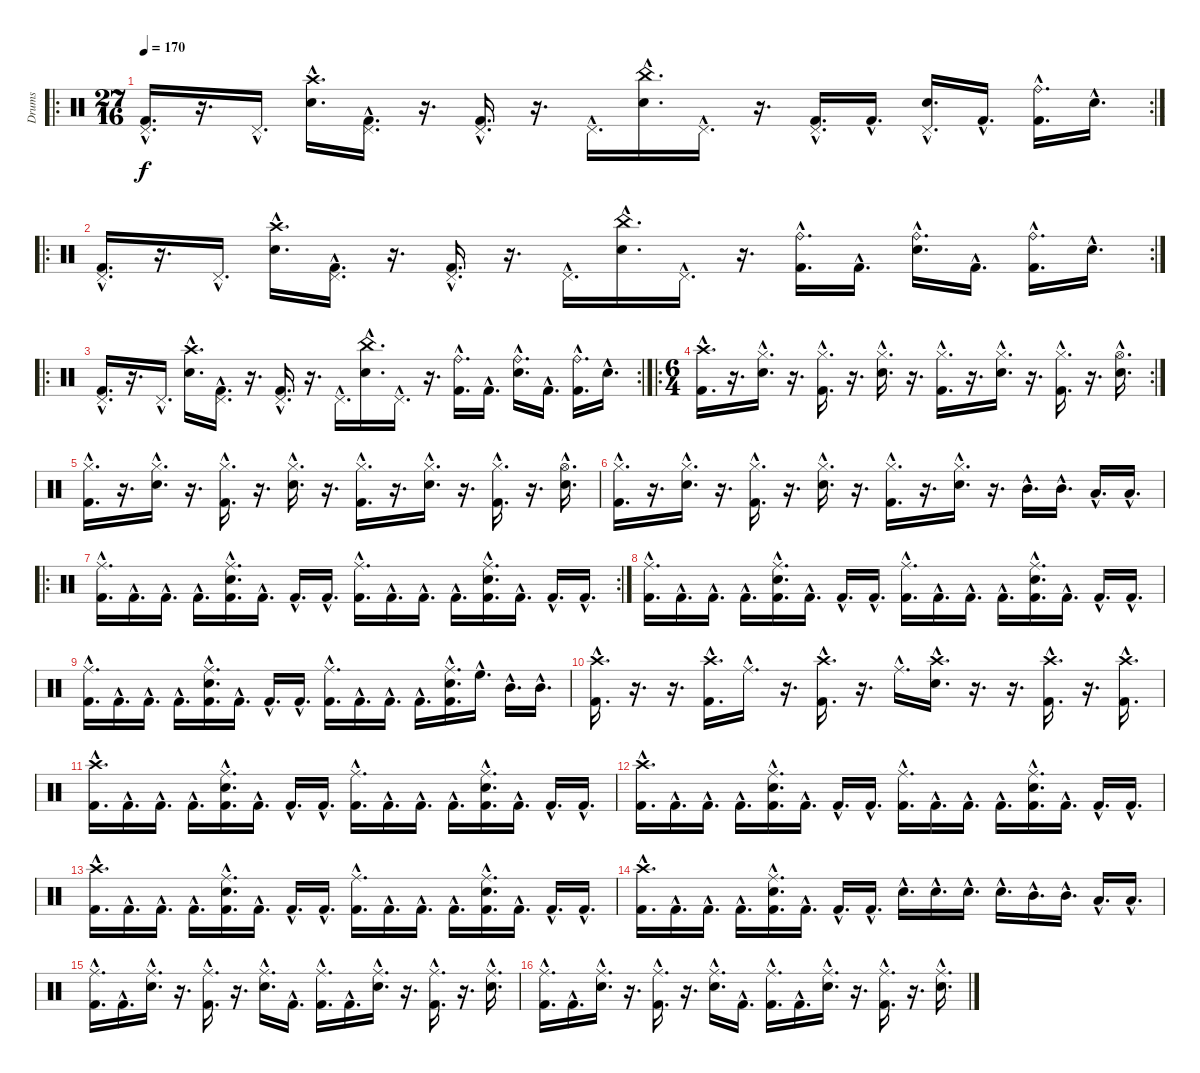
\track ("Drums" "Drums") {instrument percussion}
\staff {score}
\articulation defaults
\ro
\rc 2
\ts (27 16)
\tempo 170
\clef neutral
\ks c
("Pedal Hi-Hat (hit)"{hac} "Kick (hit) 2"{hac}).16{d dy f} r.16{d} "Pedal Hi-Hat (hit)"{hac}.16{d} ("Crash high (hit)"{hac} "Snare (hit) 2"{hac}).16{d} ("Pedal Hi-Hat (hit)"{hac} "Kick (hit) 2"{hac}).16{d} r.16{d} ("Pedal Hi-Hat (hit)"{hac} "Kick (hit) 2"{hac}).16{d} r.16{d} "Pedal Hi-Hat (hit)"{hac}.16{d} ("China (hit)"{hac} "Snare (hit) 2"{hac}).16{d} "Pedal Hi-Hat (hit)"{hac}.16{d} r.16{d} ("Pedal Hi-Hat (hit)"{hac} "Kick (hit) 2"{hac}).16{d} "Kick (hit) 2"{hac}.16{d} ("Pedal Hi-Hat (hit)"{hac} "Snare (hit) 2"{hac}).16{d} "Kick (hit) 2"{hac}.16{d} ("Ride (bell)"{hac} "Kick (hit) 2"{hac}).16{d} "Snare (hit) 2"{hac}.16{d} |
\ro
\rc 2
("Pedal Hi-Hat (hit)"{hac} "Kick (hit) 2"{hac}).16{d} r.16{d} "Pedal Hi-Hat (hit)"{hac}.16{d} ("Crash high (hit)"{hac} "Snare (hit) 2"{hac}).16{d} ("Pedal Hi-Hat (hit)"{hac} "Kick (hit) 2"{hac}).16{d} r.16{d} ("Pedal Hi-Hat (hit)"{hac} "Kick (hit) 2"{hac}).16{d} r.16{d} "Pedal Hi-Hat (hit)"{hac}.16{d} ("China (hit)"{hac} "Snare (hit) 2"{hac}).16{d} "Pedal Hi-Hat (hit)"{hac}.16{d} r.16{d} ("Ride (bell)"{hac} "Kick (hit) 2"{hac}).16{d} "Kick (hit) 2"{hac}.16{d} ("Ride (bell)"{hac} "Snare (hit) 2"{hac}).16{d} "Kick (hit) 2"{hac}.16{d} ("Ride (bell)"{hac} "Kick (hit) 2"{hac}).16{d} "Snare (hit) 2"{hac}.16{d} |
\ro
\rc 2
("Pedal Hi-Hat (hit)"{hac} "Kick (hit) 2"{hac}).16{d} r.16{d} "Pedal Hi-Hat (hit)"{hac}.16{d} ("Crash high (hit)"{hac} "Snare (hit) 2"{hac}).16{d} ("Pedal Hi-Hat (hit)"{hac} "Kick (hit) 2"{hac}).16{d} r.16{d} ("Pedal Hi-Hat (hit)"{hac} "Kick (hit) 2"{hac}).16{d} r.16{d} "Pedal Hi-Hat (hit)"{hac}.16{d} ("China (hit)"{hac} "Snare (hit) 2"{hac}).16{d} "Pedal Hi-Hat (hit)"{hac}.16{d} r.16{d} ("Ride (bell)"{hac} "Kick (hit) 2"{hac}).16{d} "Kick (hit) 2"{hac}.16{d} ("Ride (bell)"{hac} "Snare (hit) 2"{hac}).16{d} "Kick (hit) 2"{hac}.16{d} ("Ride (bell)"{hac} "Kick (hit) 2"{hac}).16{d} "Snare (hit) 2"{hac}.16{d} |
\ro
\rc 2
\ts (6 4)
("Kick (hit) 2"{hac} "Crash high (hit)"{hac}).16{d} r.16{d} ("Snare (hit) 2"{hac} "Hi-Hat (closed)"{hac}).16{d} r.16{d} ("Kick (hit) 2"{hac} "Hi-Hat (closed)"{hac}).16{d} r.16{d} ("Snare (hit) 2"{hac} "Hi-Hat (closed)"{hac}).16{d} r.16{d} ("Kick (hit) 2"{hac} "Hi-Hat (closed)"{hac}).16{d} r.16{d} ("Snare (hit) 2"{hac} "Hi-Hat (closed)"{hac}).16{d} r.16{d} ("Kick (hit) 2"{hac} "Hi-Hat (closed)"{hac}).16{d} r.16{d} ("Snare (hit) 2"{hac} "Hi-Hat (open)"{hac}).16{d} |
("Kick (hit) 2"{hac} "Hi-Hat (closed)"{hac}).16{d} r.16{d} ("Snare (hit) 2"{hac} "Hi-Hat (closed)"{hac}).16{d} r.16{d} ("Kick (hit) 2"{hac} "Hi-Hat (closed)"{hac}).16{d} r.16{d} ("Snare (hit) 2"{hac} "Hi-Hat (closed)"{hac}).16{d} r.16{d} ("Kick (hit) 2"{hac} "Hi-Hat (closed)"{hac}).16{d} r.16{d} ("Snare (hit) 2"{hac} "Hi-Hat (closed)"{hac}).16{d} r.16{d} ("Kick (hit) 2"{hac} "Hi-Hat (closed)"{hac}).16{d} r.16{d} ("Snare (hit) 2"{hac} "Hi-Hat (open)"{hac}).16{d} |
("Kick (hit) 2"{hac} "Hi-Hat (closed)"{hac}).16{d} r.16{d} ("Snare (hit) 2"{hac} "Hi-Hat (closed)"{hac}).16{d} r.16{d} ("Kick (hit) 2"{hac} "Hi-Hat (closed)"{hac}).16{d} r.16{d} ("Snare (hit) 2"{hac} "Hi-Hat (closed)"{hac}).16{d} r.16{d} ("Kick (hit) 2"{hac} "Hi-Hat (closed)"{hac}).16{d} r.16{d} ("Snare (hit) 2"{hac} "Hi-Hat (closed)"{hac}).16{d} r.16{d} "Mid Tom (hit)"{hac}.16{d} "Mid Tom (hit)"{hac}.16{d} "Low Tom (hit)"{hac}.16{d} "Low Tom (hit)"{hac}.16{d} |
\ro
\rc 2
("Ride (middle)"{hac} "Kick (hit) 2"{hac}).16{d} "Kick (hit) 2"{hac}.16{d} "Kick (hit) 2"{hac}.16{d} "Kick (hit) 2"{hac}.16{d} ("Ride (middle)"{hac} "Snare (hit) 2"{hac} "Kick (hit) 2"{hac}).16{d} "Kick (hit) 2"{hac}.16{d} "Kick (hit) 2"{hac}.16{d} "Kick (hit) 2"{hac}.16{d} ("Ride (middle)"{hac} "Kick (hit) 2"{hac}).16{d} "Kick (hit) 2"{hac}.16{d} "Kick (hit) 2"{hac}.16{d} "Kick (hit) 2"{hac}.16{d} ("Ride (middle)"{hac} "Snare (hit) 2"{hac} "Kick (hit) 2"{hac}).16{d} "Kick (hit) 2"{hac}.16{d} "Kick (hit) 2"{hac}.16{d} "Kick (hit) 2"{hac}.16{d} |
("Ride (middle)"{hac} "Kick (hit) 2"{hac}).16{d} "Kick (hit) 2"{hac}.16{d} "Kick (hit) 2"{hac}.16{d} "Kick (hit) 2"{hac}.16{d} ("Ride (middle)"{hac} "Snare (hit) 2"{hac} "Kick (hit) 2"{hac}).16{d} "Kick (hit) 2"{hac}.16{d} "Kick (hit) 2"{hac}.16{d} "Kick (hit) 2"{hac}.16{d} ("Ride (middle)"{hac} "Kick (hit) 2"{hac}).16{d} "Kick (hit) 2"{hac}.16{d} "Kick (hit) 2"{hac}.16{d} "Kick (hit) 2"{hac}.16{d} ("Ride (middle)"{hac} "Snare (hit) 2"{hac} "Kick (hit) 2"{hac}).16{d} "Kick (hit) 2"{hac}.16{d} "Kick (hit) 2"{hac}.16{d} "Kick (hit) 2"{hac}.16{d} |
("Ride (middle)"{hac} "Kick (hit) 2"{hac}).16{d} "Kick (hit) 2"{hac}.16{d} "Kick (hit) 2"{hac}.16{d} "Kick (hit) 2"{hac}.16{d} ("Ride (middle)"{hac} "Snare (hit) 2"{hac} "Kick (hit) 2"{hac}).16{d} "Kick (hit) 2"{hac}.16{d} "Kick (hit) 2"{hac}.16{d} "Kick (hit) 2"{hac}.16{d} ("Ride (middle)"{hac} "Kick (hit) 2"{hac}).16{d} "Kick (hit) 2"{hac}.16{d} "Kick (hit) 2"{hac}.16{d} "Kick (hit) 2"{hac}.16{d} ("Ride (middle)"{hac} "Snare (hit) 2"{hac} "Kick (hit) 2"{hac}).16{d} "High Floor Tom (hit)"{hac}.16{d} "Mid Tom (hit)"{hac}.16{d} "Mid Tom (hit)"{hac}.16{d} |
("Crash high (hit)"{hac} "Kick (hit) 2"{hac}).16{d} r.16{d} r.16{d} ("Crash high (hit)"{hac} "Kick (hit) 2"{hac}).16{d} "Ride (middle)"{hac}.16{d} r.16{d} ("Crash high (hit)"{hac} "Kick (hit) 2"{hac}).16{d} r.16{d} "Ride (middle)"{hac}.16{d} ("Crash high (hit)"{hac} "Snare (hit) 2"{hac}).16{d} r.16{d} r.16{d} ("Crash high (hit)"{hac} "Kick (hit) 2"{hac}).16{d} r.16{d} ("Crash high (hit)"{hac} "Kick (hit) 2"{hac}).16{d} |
("Crash high (hit)"{hac} "Kick (hit) 2"{hac}).16{d} "Kick (hit) 2"{hac}.16{d} "Kick (hit) 2"{hac}.16{d} "Kick (hit) 2"{hac}.16{d} ("Ride (middle)"{hac} "Snare (hit) 2"{hac} "Kick (hit) 2"{hac}).16{d} "Kick (hit) 2"{hac}.16{d} "Kick (hit) 2"{hac}.16{d} "Kick (hit) 2"{hac}.16{d} ("Ride (middle)"{hac} "Kick (hit) 2"{hac}).16{d} "Kick (hit) 2"{hac}.16{d} "Kick (hit) 2"{hac}.16{d} "Kick (hit) 2"{hac}.16{d} ("Ride (middle)"{hac} "Snare (hit) 2"{hac} "Kick (hit) 2"{hac}).16{d} "Kick (hit) 2"{hac}.16{d} "Kick (hit) 2"{hac}.16{d} "Kick (hit) 2"{hac}.16{d} |
("Crash high (hit)"{hac} "Kick (hit) 2"{hac}).16{d} "Kick (hit) 2"{hac}.16{d} "Kick (hit) 2"{hac}.16{d} "Kick (hit) 2"{hac}.16{d} ("Ride (middle)"{hac} "Snare (hit) 2"{hac} "Kick (hit) 2"{hac}).16{d} "Kick (hit) 2"{hac}.16{d} "Kick (hit) 2"{hac}.16{d} "Kick (hit) 2"{hac}.16{d} ("Ride (middle)"{hac} "Kick (hit) 2"{hac}).16{d} "Kick (hit) 2"{hac}.16{d} "Kick (hit) 2"{hac}.16{d} "Kick (hit) 2"{hac}.16{d} ("Ride (middle)"{hac} "Snare (hit) 2"{hac} "Kick (hit) 2"{hac}).16{d} "Kick (hit) 2"{hac}.16{d} "Kick (hit) 2"{hac}.16{d} "Kick (hit) 2"{hac}.16{d} |
("Crash high (hit)"{hac} "Kick (hit) 2"{hac}).16{d} "Kick (hit) 2"{hac}.16{d} "Kick (hit) 2"{hac}.16{d} "Kick (hit) 2"{hac}.16{d} ("Ride (middle)"{hac} "Snare (hit) 2"{hac} "Kick (hit) 2"{hac}).16{d} "Kick (hit) 2"{hac}.16{d} "Kick (hit) 2"{hac}.16{d} "Kick (hit) 2"{hac}.16{d} ("Ride (middle)"{hac} "Kick (hit) 2"{hac}).16{d} "Kick (hit) 2"{hac}.16{d} "Kick (hit) 2"{hac}.16{d} "Kick (hit) 2"{hac}.16{d} ("Ride (middle)"{hac} "Snare (hit) 2"{hac} "Kick (hit) 2"{hac}).16{d} "Kick (hit) 2"{hac}.16{d} "Kick (hit) 2"{hac}.16{d} "Kick (hit) 2"{hac}.16{d} |
("Crash high (hit)"{hac} "Kick (hit) 2"{hac}).16{d} "Kick (hit) 2"{hac}.16{d} "Kick (hit) 2"{hac}.16{d} "Kick (hit) 2"{hac}.16{d} ("Ride (middle)"{hac} "Snare (hit) 2"{hac} "Kick (hit) 2"{hac}).16{d} "Kick (hit) 2"{hac}.16{d} "Kick (hit) 2"{hac}.16{d} "Kick (hit) 2"{hac}.16{d} "Snare (hit) 2"{hac}.16{d} "Snare (hit) 2"{hac}.16{d} "Snare (hit) 2"{hac}.16{d} "Snare (hit) 2"{hac}.16{d} "Mid Tom (hit)"{hac}.16{d} "Mid Tom (hit)"{hac}.16{d} "Low Tom (hit)"{hac}.16{d} "Low Tom (hit)"{hac}.16{d} |
("Kick (hit) 2"{hac} "Ride (middle)"{hac}).16{d} "Kick (hit) 2"{hac}.16{d} ("Snare (hit) 2"{hac} "Ride (middle)"{hac}).16{d} r.16{d} ("Kick (hit) 2"{hac} "Ride (middle)"{hac}).16{d} r.16{d} ("Snare (hit) 2"{hac} "Ride (middle)"{hac}).16{d} "Kick (hit) 2"{hac}.16{d} ("Kick (hit) 2"{hac} "Ride (middle)"{hac}).16{d} "Kick (hit) 2"{hac}.16{d} ("Snare (hit) 2"{hac} "Ride (middle)"{hac}).16{d} r.16{d} ("Kick (hit) 2"{hac} "Ride (middle)"{hac}).16{d} r.16{d} ("Snare (hit) 2"{hac} "Ride (middle)"{hac}).16{d} |
("Kick (hit) 2"{hac} "Ride (middle)"{hac}).16{d} "Kick (hit) 2"{hac}.16{d} ("Snare (hit) 2"{hac} "Ride (middle)"{hac}).16{d} r.16{d} ("Kick (hit) 2"{hac} "Ride (middle)"{hac}).16{d} r.16{d} ("Snare (hit) 2"{hac} "Ride (middle)"{hac}).16{d} "Kick (hit) 2"{hac}.16{d} ("Kick (hit) 2"{hac} "Ride (middle)"{hac}).16{d} "Kick (hit) 2"{hac}.16{d} ("Snare (hit) 2"{hac} "Ride (middle)"{hac}).16{d} r.16{d} ("Kick (hit) 2"{hac} "Ride (middle)"{hac}).16{d} r.16{d} ("Snare (hit) 2"{hac} "Ride (middle)"{hac}).16{d}
